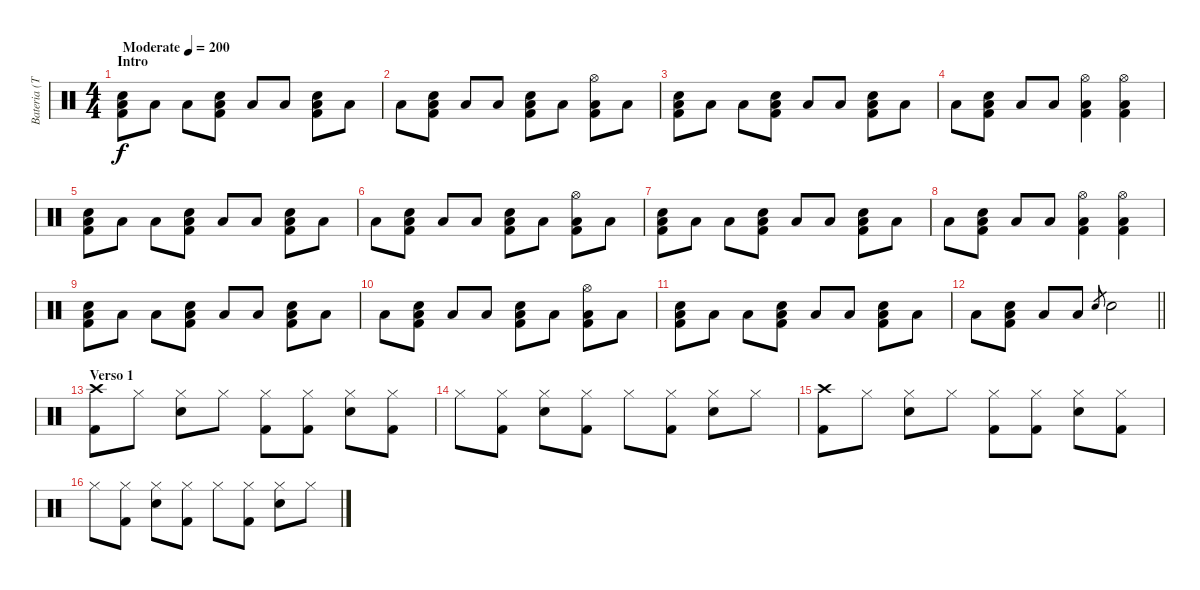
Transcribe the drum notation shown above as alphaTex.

\track ("Bateria (Tré)" "Bateria (T") {instrument percussion}
\staff {score}
\articulation defaults
\ts (4 4)
\section ("" "Intro")
\tempo (200 "Moderate")
\clef neutral
\ks c
("Low Floor Tom (hit)" "Kick (hit) 2" "Electric Snare (hit)").8{dy f} "Low Floor Tom (hit)".8 "Low Floor Tom (hit)".8 ("Low Floor Tom (hit)" "Kick (hit) 2" "Electric Snare (hit)").8 "Low Floor Tom (hit)".8 "Low Floor Tom (hit)".8 ("Low Floor Tom (hit)" "Kick (hit) 2" "Electric Snare (hit)").8 "Low Floor Tom (hit)".8 |
"Low Floor Tom (hit)".8 ("Kick (hit) 2" "Low Floor Tom (hit)" "Electric Snare (hit)").8 "Low Floor Tom (hit)".8 "Low Floor Tom (hit)".8 ("Kick (hit) 2" "Low Floor Tom (hit)" "Electric Snare (hit)").8 "Low Floor Tom (hit)".8 ("Kick (hit) 2" "Low Floor Tom (hit)" "Hi-Hat (open)").8 "Low Floor Tom (hit)".8 |
("Low Floor Tom (hit)" "Kick (hit) 2" "Electric Snare (hit)").8 "Low Floor Tom (hit)".8 "Low Floor Tom (hit)".8 ("Low Floor Tom (hit)" "Kick (hit) 2" "Electric Snare (hit)").8 "Low Floor Tom (hit)".8 "Low Floor Tom (hit)".8 ("Low Floor Tom (hit)" "Kick (hit) 2" "Electric Snare (hit)").8 "Low Floor Tom (hit)".8 |
"Low Floor Tom (hit)".8 ("Kick (hit) 2" "Low Floor Tom (hit)" "Electric Snare (hit)").8 "Low Floor Tom (hit)".8 "Low Floor Tom (hit)".8 ("Kick (hit) 2" "Low Floor Tom (hit)" "Hi-Hat (open)").4 ("Kick (hit) 2" "Low Floor Tom (hit)" "Hi-Hat (open)").4 |
("Low Floor Tom (hit)" "Kick (hit) 2" "Electric Snare (hit)").8 "Low Floor Tom (hit)".8 "Low Floor Tom (hit)".8 ("Low Floor Tom (hit)" "Kick (hit) 2" "Electric Snare (hit)").8 "Low Floor Tom (hit)".8 "Low Floor Tom (hit)".8 ("Low Floor Tom (hit)" "Kick (hit) 2" "Electric Snare (hit)").8 "Low Floor Tom (hit)".8 |
"Low Floor Tom (hit)".8 ("Kick (hit) 2" "Low Floor Tom (hit)" "Electric Snare (hit)").8 "Low Floor Tom (hit)".8 "Low Floor Tom (hit)".8 ("Kick (hit) 2" "Low Floor Tom (hit)" "Electric Snare (hit)").8 "Low Floor Tom (hit)".8 ("Kick (hit) 2" "Low Floor Tom (hit)" "Hi-Hat (open)").8 "Low Floor Tom (hit)".8 |
("Low Floor Tom (hit)" "Kick (hit) 2" "Electric Snare (hit)").8 "Low Floor Tom (hit)".8 "Low Floor Tom (hit)".8 ("Low Floor Tom (hit)" "Kick (hit) 2" "Electric Snare (hit)").8 "Low Floor Tom (hit)".8 "Low Floor Tom (hit)".8 ("Low Floor Tom (hit)" "Kick (hit) 2" "Electric Snare (hit)").8 "Low Floor Tom (hit)".8 |
"Low Floor Tom (hit)".8 ("Kick (hit) 2" "Low Floor Tom (hit)" "Electric Snare (hit)").8 "Low Floor Tom (hit)".8 "Low Floor Tom (hit)".8 ("Kick (hit) 2" "Low Floor Tom (hit)" "Hi-Hat (open)").4 ("Kick (hit) 2" "Low Floor Tom (hit)" "Hi-Hat (open)").4 |
("Low Floor Tom (hit)" "Kick (hit) 2" "Electric Snare (hit)").8 "Low Floor Tom (hit)".8 "Low Floor Tom (hit)".8 ("Low Floor Tom (hit)" "Kick (hit) 2" "Electric Snare (hit)").8 "Low Floor Tom (hit)".8 "Low Floor Tom (hit)".8 ("Low Floor Tom (hit)" "Kick (hit) 2" "Electric Snare (hit)").8 "Low Floor Tom (hit)".8 |
"Low Floor Tom (hit)".8 ("Kick (hit) 2" "Low Floor Tom (hit)" "Electric Snare (hit)").8 "Low Floor Tom (hit)".8 "Low Floor Tom (hit)".8 ("Kick (hit) 2" "Low Floor Tom (hit)" "Electric Snare (hit)").8 "Low Floor Tom (hit)".8 ("Kick (hit) 2" "Low Floor Tom (hit)" "Hi-Hat (open)").8 "Low Floor Tom (hit)".8 |
("Low Floor Tom (hit)" "Kick (hit) 2" "Electric Snare (hit)").8 "Low Floor Tom (hit)".8 "Low Floor Tom (hit)".8 ("Low Floor Tom (hit)" "Kick (hit) 2" "Electric Snare (hit)").8 "Low Floor Tom (hit)".8 "Low Floor Tom (hit)".8 ("Low Floor Tom (hit)" "Kick (hit) 2" "Electric Snare (hit)").8 "Low Floor Tom (hit)".8 |
\barLineRight lightlight "Low Floor Tom (hit)".8
("Kick (hit) 2" "Low Floor Tom (hit)" "Electric Snare (hit)").8 "Low Floor Tom (hit)".8 "Low Floor Tom (hit)".8 "Electric Snare (hit)".8{gr} "Electric Snare (hit)".2 |
\section ("" "Verso 1")
("Crash high (hit)" "Kick (hit) 2").8 "Hi-Hat (closed)".8 ("Hi-Hat (closed)" "Electric Snare (hit)").8 "Hi-Hat (closed)".8 ("Hi-Hat (closed)" "Kick (hit) 2").8 ("Hi-Hat (closed)" "Kick (hit) 2").8 ("Hi-Hat (closed)" "Electric Snare (hit)").8 ("Hi-Hat (closed)" "Kick (hit) 2").8 |
"Hi-Hat (closed)".8 ("Hi-Hat (closed)" "Kick (hit) 2").8 ("Hi-Hat (closed)" "Electric Snare (hit)").8 ("Hi-Hat (closed)" "Kick (hit) 2").8 "Hi-Hat (closed)".8 ("Hi-Hat (closed)" "Kick (hit) 2").8 ("Hi-Hat (closed)" "Electric Snare (hit)").8 "Hi-Hat (closed)".8 |
("Crash high (hit)" "Kick (hit) 2").8 "Hi-Hat (closed)".8 ("Hi-Hat (closed)" "Electric Snare (hit)").8 "Hi-Hat (closed)".8 ("Hi-Hat (closed)" "Kick (hit) 2").8 ("Hi-Hat (closed)" "Kick (hit) 2").8 ("Hi-Hat (closed)" "Electric Snare (hit)").8 ("Hi-Hat (closed)" "Kick (hit) 2").8 |
"Hi-Hat (closed)".8 ("Hi-Hat (closed)" "Kick (hit) 2").8 ("Hi-Hat (closed)" "Electric Snare (hit)").8 ("Hi-Hat (closed)" "Kick (hit) 2").8 "Hi-Hat (closed)".8 ("Hi-Hat (closed)" "Kick (hit) 2").8 ("Hi-Hat (closed)" "Electric Snare (hit)").8 "Hi-Hat (closed)".8
